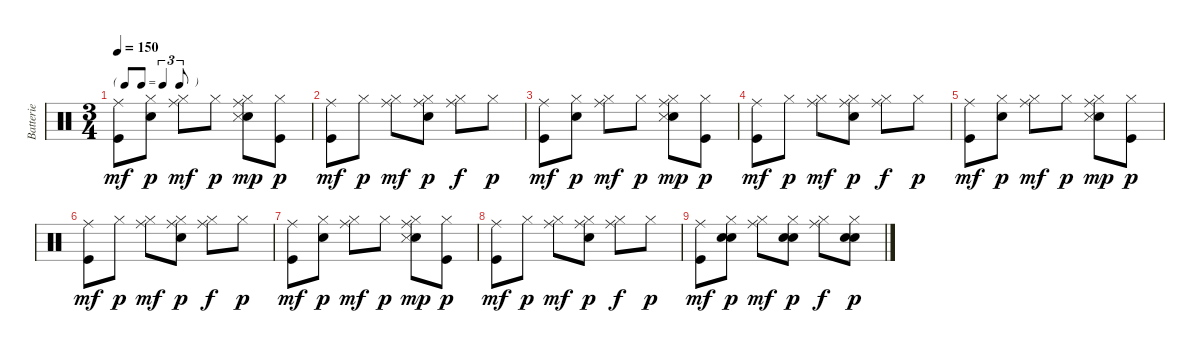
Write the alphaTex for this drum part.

\track ("Batterie" "Batterie") {instrument percussion}
\staff {score}
\articulation defaults
\ts (3 4)
\tf triplet8th
\tempo 150
\clef neutral
\ks c
("Kick (hit)" "Ride (middle)").8{dy mf} ("Snare (hit) 2" "Hi-Hat (closed)").8{dy p} ("Hi-Hat (closed)" "Ride (middle)").8{dy mf} "Hi-Hat (closed)".8{dy p} ("Snare (hit) 2" "Hi-Hat (closed)" "Snare (side stick) 3" "Ride (middle)").8{dy mp} ("Kick (hit)" "Hi-Hat (closed)").8{dy p} |
("Kick (hit)" "Ride (middle)").8{dy mf} "Hi-Hat (closed)".8{dy p} ("Hi-Hat (closed)" "Ride (middle)").8{dy mf} ("Snare (hit) 2" "Hi-Hat (closed)" "Ride (middle)").8{dy p} ("Hi-Hat (closed)" "Ride (middle)").8{dy f} "Hi-Hat (closed)".8{dy p} |
("Kick (hit)" "Ride (middle)").8{dy mf} ("Snare (hit) 2" "Hi-Hat (closed)").8{dy p} ("Hi-Hat (closed)" "Ride (middle)").8{dy mf} "Hi-Hat (closed)".8{dy p} ("Snare (hit) 2" "Hi-Hat (closed)" "Snare (side stick) 3" "Ride (middle)").8{dy mp} ("Kick (hit)" "Hi-Hat (closed)").8{dy p} |
("Kick (hit)" "Ride (middle)").8{dy mf} "Hi-Hat (closed)".8{dy p} ("Hi-Hat (closed)" "Ride (middle)").8{dy mf} ("Snare (hit) 2" "Hi-Hat (closed)" "Ride (middle)").8{dy p} ("Hi-Hat (closed)" "Ride (middle)").8{dy f} "Hi-Hat (closed)".8{dy p} |
("Kick (hit)" "Ride (middle)").8{dy mf} ("Snare (hit) 2" "Hi-Hat (closed)").8{dy p} ("Hi-Hat (closed)" "Ride (middle)").8{dy mf} "Hi-Hat (closed)".8{dy p} ("Snare (hit) 2" "Hi-Hat (closed)" "Snare (side stick) 3" "Ride (middle)").8{dy mp} ("Kick (hit)" "Hi-Hat (closed)").8{dy p} |
("Kick (hit)" "Ride (middle)").8{dy mf} "Hi-Hat (closed)".8{dy p} ("Hi-Hat (closed)" "Ride (middle)").8{dy mf} ("Snare (hit) 2" "Hi-Hat (closed)" "Ride (middle)").8{dy p} ("Hi-Hat (closed)" "Ride (middle)").8{dy f} "Hi-Hat (closed)".8{dy p} |
("Kick (hit)" "Ride (middle)").8{dy mf} ("Snare (hit) 2" "Hi-Hat (closed)").8{dy p} ("Hi-Hat (closed)" "Ride (middle)").8{dy mf} "Hi-Hat (closed)".8{dy p} ("Snare (hit) 2" "Hi-Hat (closed)" "Snare (side stick) 3" "Ride (middle)").8{dy mp} ("Kick (hit)" "Hi-Hat (closed)").8{dy p} |
("Kick (hit)" "Ride (middle)").8{dy mf} "Hi-Hat (closed)".8{dy p} ("Hi-Hat (closed)" "Ride (middle)").8{dy mf} ("Snare (hit) 2" "Hi-Hat (closed)" "Ride (middle)").8{dy p} ("Hi-Hat (closed)" "Ride (middle)").8{dy f} "Hi-Hat (closed)".8{dy p} |
("Kick (hit)" "Ride (middle)").8{dy mf} ("Snare (hit) 2" "Snare (hit) 2" "Hi-Hat (closed)").8{dy p} ("Hi-Hat (closed)" "Ride (middle)").8{dy mf} ("Snare (hit) 2" "Snare (hit) 2" "Hi-Hat (closed)").8{dy p} ("Hi-Hat (closed)" "Ride (middle)").8{dy f} ("Snare (hit) 2" "Snare (hit) 2" "Hi-Hat (closed)").8{dy p}
